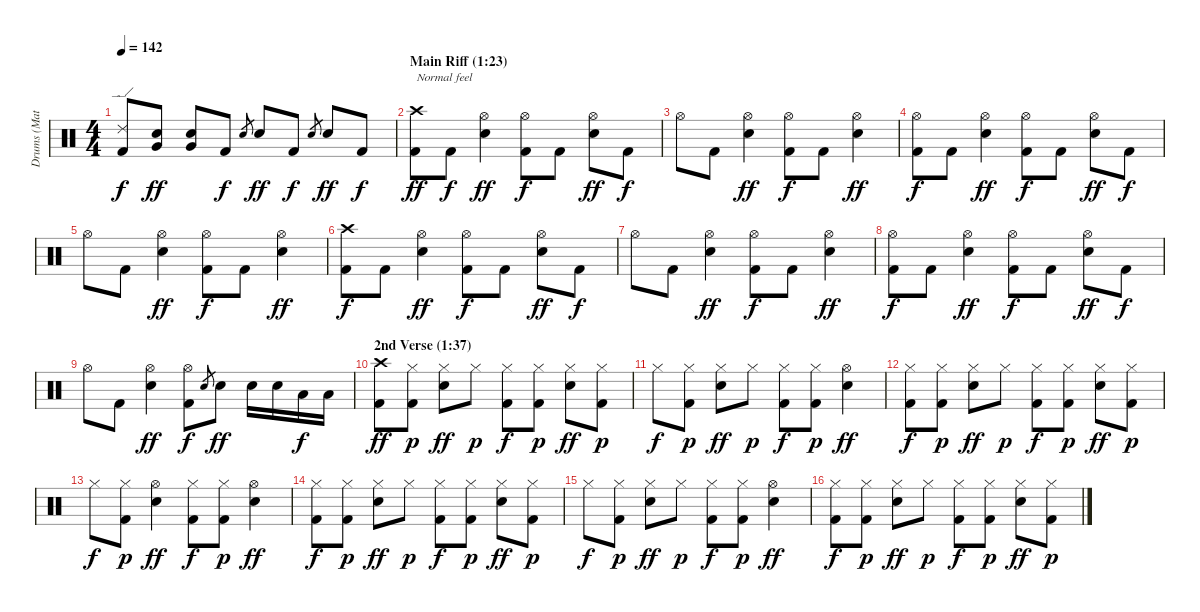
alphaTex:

\track ("Drums (Matt Sorum)" "Drums (Mat") {instrument percussion}
\staff {score}
\articulation defaults
\ts (4 4)
\tempo 142
\clef neutral
\ks c
("Ride (edge) 2" "Kick (hit) 2").8{dy f} ("Very Low Tom (hit)" "Snare (hit) 2").8{dy ff} ("Very Low Tom (hit)" "Snare (hit) 2").8 "Kick (hit) 2".8{dy f} "Snare (hit) 2".8{gr} "Snare (hit) 2".8{dy ff} "Kick (hit) 2".8{dy f} "Snare (hit) 2".8{gr} "Snare (hit) 2".8{dy ff} "Kick (hit) 2".8{dy f} |
\section ("" "Main Riff (1:23)")
("Crash high (hit)" "Kick (hit) 2").8{txt "Normal feel" dy ff} "Kick (hit) 2".8{dy f} ("Hi-Hat (open)" "Snare (hit) 2").4{dy ff} ("Hi-Hat (open)" "Kick (hit) 2").8{dy f} "Kick (hit) 2".8 ("Hi-Hat (open)" "Snare (hit) 2").8{dy ff} "Kick (hit) 2".8{dy f} |
"Hi-Hat (open)".8 "Kick (hit) 2".8 ("Hi-Hat (open)" "Snare (hit) 2").4{dy ff} ("Hi-Hat (open)" "Kick (hit) 2").8{dy f} "Kick (hit) 2".8 ("Hi-Hat (open)" "Snare (hit) 2").4{dy ff} |
("Hi-Hat (open)" "Kick (hit) 2").8{dy f} "Kick (hit) 2".8 ("Hi-Hat (open)" "Snare (hit) 2").4{dy ff} ("Hi-Hat (open)" "Kick (hit) 2").8{dy f} "Kick (hit) 2".8 ("Hi-Hat (open)" "Snare (hit) 2").8{dy ff} "Kick (hit) 2".8{dy f} |
"Hi-Hat (open)".8 "Kick (hit) 2".8 ("Hi-Hat (open)" "Snare (hit) 2").4{dy ff} ("Hi-Hat (open)" "Kick (hit) 2").8{dy f} "Kick (hit) 2".8 ("Hi-Hat (open)" "Snare (hit) 2").4{dy ff} |
("Crash high (hit)" "Kick (hit) 2").8{dy f} "Kick (hit) 2".8 ("Hi-Hat (open)" "Snare (hit) 2").4{dy ff} ("Hi-Hat (open)" "Kick (hit) 2").8{dy f} "Kick (hit) 2".8 ("Hi-Hat (open)" "Snare (hit) 2").8{dy ff} "Kick (hit) 2".8{dy f} |
"Hi-Hat (open)".8 "Kick (hit) 2".8 ("Hi-Hat (open)" "Snare (hit) 2").4{dy ff} ("Hi-Hat (open)" "Kick (hit) 2").8{dy f} "Kick (hit) 2".8 ("Hi-Hat (open)" "Snare (hit) 2").4{dy ff} |
("Hi-Hat (open)" "Kick (hit) 2").8{dy f} "Kick (hit) 2".8 ("Hi-Hat (open)" "Snare (hit) 2").4{dy ff} ("Hi-Hat (open)" "Kick (hit) 2").8{dy f} "Kick (hit) 2".8 ("Hi-Hat (open)" "Snare (hit) 2").8{dy ff} "Kick (hit) 2".8{dy f} |
"Hi-Hat (open)".8 "Kick (hit) 2".8 ("Hi-Hat (open)" "Snare (hit) 2").4{dy ff} ("Hi-Hat (open)" "Kick (hit) 2").8{dy f} "Snare (hit) 2".8{gr} "Snare (hit) 2".8{dy ff} "Snare (hit) 2".16 "Snare (hit) 2".16 "Low Tom (hit)".16{dy f} "Low Tom (hit)".16 |
\section ("" "2nd Verse (1:37)")
("Crash high (hit)" "Kick (hit) 2").8{dy ff} ("Hi-Hat (closed)" "Kick (hit) 2").8{dy p} ("Hi-Hat (closed)" "Snare (hit) 2").8{dy ff} "Hi-Hat (closed)".8{dy p} ("Hi-Hat (closed)" "Kick (hit) 2").8{dy f} ("Hi-Hat (closed)" "Kick (hit) 2").8{dy p} ("Hi-Hat (closed)" "Snare (hit) 2").8{dy ff} ("Hi-Hat (closed)" "Kick (hit) 2").8{dy p} |
"Hi-Hat (closed)".8{dy f} ("Hi-Hat (closed)" "Kick (hit) 2").8{dy p} ("Hi-Hat (closed)" "Snare (hit) 2").8{dy ff} "Hi-Hat (closed)".8{dy p} ("Hi-Hat (closed)" "Kick (hit) 2").8{dy f} ("Hi-Hat (closed)" "Kick (hit) 2").8{dy p} ("Hi-Hat (open)" "Snare (hit) 2").4{dy ff} |
("Hi-Hat (closed)" "Kick (hit) 2").8{dy f} ("Hi-Hat (closed)" "Kick (hit) 2").8{dy p} ("Hi-Hat (closed)" "Snare (hit) 2").8{dy ff} "Hi-Hat (closed)".8{dy p} ("Hi-Hat (closed)" "Kick (hit) 2").8{dy f} ("Hi-Hat (closed)" "Kick (hit) 2").8{dy p} ("Hi-Hat (closed)" "Snare (hit) 2").8{dy ff} ("Hi-Hat (closed)" "Kick (hit) 2").8{dy p} |
"Hi-Hat (closed)".8{dy f} ("Hi-Hat (closed)" "Kick (hit) 2").8{dy p} ("Hi-Hat (open)" "Snare (hit) 2").4{dy ff} ("Hi-Hat (closed)" "Kick (hit) 2").8{dy f} ("Hi-Hat (closed)" "Kick (hit) 2").8{dy p} ("Hi-Hat (open)" "Snare (hit) 2").4{dy ff} |
("Hi-Hat (closed)" "Kick (hit) 2").8{dy f} ("Hi-Hat (closed)" "Kick (hit) 2").8{dy p} ("Hi-Hat (closed)" "Snare (hit) 2").8{dy ff} "Hi-Hat (closed)".8{dy p} ("Hi-Hat (closed)" "Kick (hit) 2").8{dy f} ("Hi-Hat (closed)" "Kick (hit) 2").8{dy p} ("Hi-Hat (closed)" "Snare (hit) 2").8{dy ff} ("Hi-Hat (closed)" "Kick (hit) 2").8{dy p} |
"Hi-Hat (closed)".8{dy f} ("Hi-Hat (closed)" "Kick (hit) 2").8{dy p} ("Hi-Hat (closed)" "Snare (hit) 2").8{dy ff} "Hi-Hat (closed)".8{dy p} ("Hi-Hat (closed)" "Kick (hit) 2").8{dy f} ("Hi-Hat (closed)" "Kick (hit) 2").8{dy p} ("Hi-Hat (open)" "Snare (hit) 2").4{dy ff} |
("Hi-Hat (closed)" "Kick (hit) 2").8{dy f} ("Hi-Hat (closed)" "Kick (hit) 2").8{dy p} ("Hi-Hat (closed)" "Snare (hit) 2").8{dy ff} "Hi-Hat (closed)".8{dy p} ("Hi-Hat (closed)" "Kick (hit) 2").8{dy f} ("Hi-Hat (closed)" "Kick (hit) 2").8{dy p} ("Hi-Hat (closed)" "Snare (hit) 2").8{dy ff} ("Hi-Hat (closed)" "Kick (hit) 2").8{dy p}
